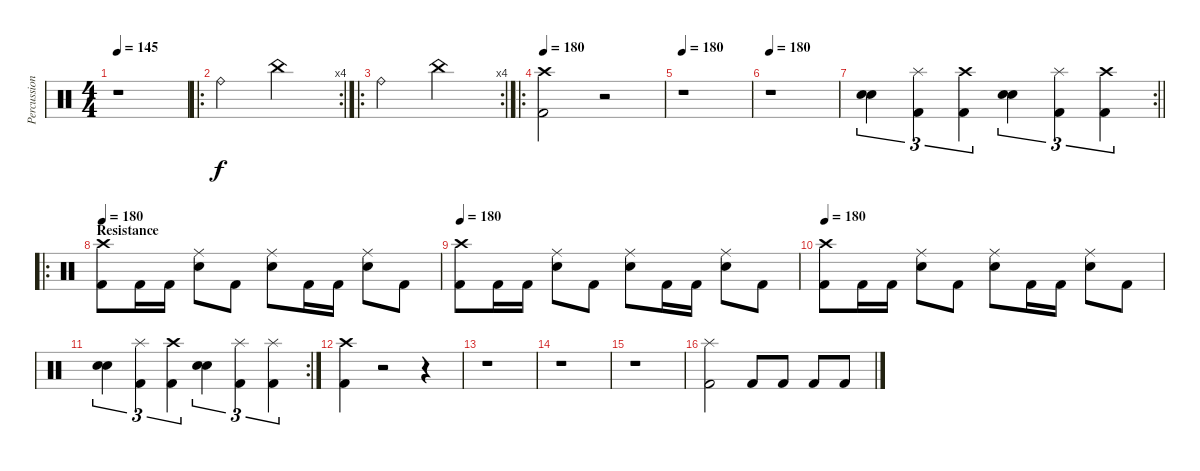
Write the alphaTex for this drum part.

\track ("Percussions" "Percussion") {instrument percussion}
\staff {score}
\articulation defaults
\ts (4 4)
\tempo 145
\clef neutral
\ks c
r.1{dy f} |
\ro
\rc 4 "Ride (bell)".2 "China (hit)".2
|
\ro
\rc 4 "Ride (bell)".2 "China (hit)".2
|
\ro
\tempo 180
("Crash high (hit)" "Kick (hit) 2").2 r.2 |
\tempo 180
r.1 |
\tempo 180
r.1 |
\rc 2
\barLineRight lightlight
("Snare (hit) 2" "Snare (hit) 2").4{tu (3 2) bd 240} ("Splash (hit)" "Kick (hit) 2").4{tu (3 2)} ("Crash high (hit)" "Kick (hit) 2").4{tu (3 2)} ("Snare (hit) 2" "Snare (hit) 2").4{tu (3 2) bd 240} ("Splash (hit)" "Kick (hit) 2").4{tu (3 2)} ("Crash high (hit)" "Kick (hit) 2").4{tu (3 2)} |
\ro
\section ("" "Resistance")
\tempo 180
("Crash high (hit)" "Kick (hit) 2").8 "Kick (hit) 2".16 "Kick (hit) 2".16 ("Ride (middle)" "Electric Snare (hit)").8 "Kick (hit) 2".8 ("Ride (middle)" "Electric Snare (hit)").8 "Kick (hit) 2".16 "Kick (hit) 2".16 ("Ride (middle)" "Electric Snare (hit)").8 "Kick (hit) 2".8 |
\tempo 180
("Crash high (hit)" "Kick (hit) 2").8 "Kick (hit) 2".16 "Kick (hit) 2".16 ("Ride (middle)" "Electric Snare (hit)").8 "Kick (hit) 2".8 ("Ride (middle)" "Electric Snare (hit)").8 "Kick (hit) 2".16 "Kick (hit) 2".16 ("Ride (middle)" "Electric Snare (hit)").8 "Kick (hit) 2".8 |
\tempo 180
("Crash high (hit)" "Kick (hit) 2").8 "Kick (hit) 2".16 "Kick (hit) 2".16 ("Ride (middle)" "Electric Snare (hit)").8 "Kick (hit) 2".8 ("Ride (middle)" "Electric Snare (hit)").8 "Kick (hit) 2".16 "Kick (hit) 2".16 ("Ride (middle)" "Electric Snare (hit)").8 "Kick (hit) 2".8 |
\rc 2
("Snare (hit) 2" "Snare (hit) 2").4{tu (3 2) bd 240} ("Splash (hit)" "Kick (hit) 2").4{tu (3 2)} ("Crash high (hit)" "Kick (hit) 2").4{tu (3 2)} ("Snare (hit) 2" "Snare (hit) 2").4{tu (3 2) bd 240} ("Splash (hit)" "Kick (hit) 2").4{tu (3 2)} ("Splash (hit)" "Kick (hit) 2").4{tu (3 2)} |
("Crash high (hit)" "Kick (hit) 2").4 r.2 r.4 |
r.1 |
r.1 |
r.1 |
("Splash (hit)" "Kick (hit) 2").2 "Kick (hit) 2".8 "Kick (hit) 2".8 "Kick (hit) 2".8 "Kick (hit) 2".8
